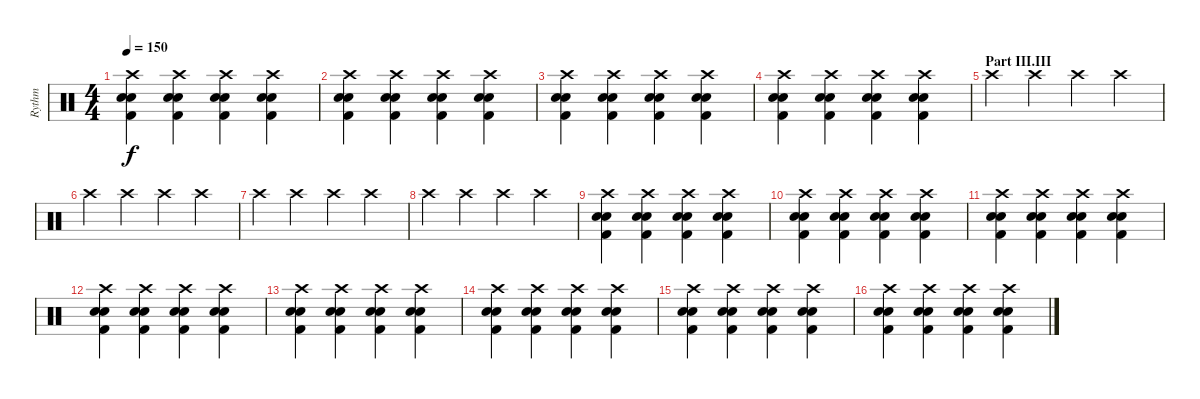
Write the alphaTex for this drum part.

\track ("Rythm" "Rythm") {instrument percussion}
\staff {score}
\articulation defaults
\ts (4 4)
\tempo 150
\clef neutral
\ks c
("Electric Snare (hit)" "Kick (hit) 2" "Snare (hit) 2" "Crash high (hit)").4{dy f} ("Electric Snare (hit)" "Kick (hit) 2" "Snare (hit) 2" "Crash high (hit)").4 ("Electric Snare (hit)" "Kick (hit) 2" "Snare (hit) 2" "Crash high (hit)").4 ("Electric Snare (hit)" "Kick (hit) 2" "Snare (hit) 2" "Crash high (hit)").4 |
("Electric Snare (hit)" "Kick (hit) 2" "Snare (hit) 2" "Crash high (hit)").4 ("Electric Snare (hit)" "Kick (hit) 2" "Snare (hit) 2" "Crash high (hit)").4 ("Electric Snare (hit)" "Kick (hit) 2" "Snare (hit) 2" "Crash high (hit)").4 ("Electric Snare (hit)" "Kick (hit) 2" "Snare (hit) 2" "Crash high (hit)").4 |
("Electric Snare (hit)" "Kick (hit) 2" "Snare (hit) 2" "Crash high (hit)").4 ("Electric Snare (hit)" "Kick (hit) 2" "Snare (hit) 2" "Crash high (hit)").4 ("Electric Snare (hit)" "Kick (hit) 2" "Snare (hit) 2" "Crash high (hit)").4 ("Electric Snare (hit)" "Kick (hit) 2" "Snare (hit) 2" "Crash high (hit)").4 |
("Electric Snare (hit)" "Kick (hit) 2" "Snare (hit) 2" "Crash high (hit)").4 ("Electric Snare (hit)" "Kick (hit) 2" "Snare (hit) 2" "Crash high (hit)").4 ("Electric Snare (hit)" "Kick (hit) 2" "Snare (hit) 2" "Crash high (hit)").4 ("Electric Snare (hit)" "Kick (hit) 2" "Snare (hit) 2" "Crash high (hit)").4 |
\section ("" "Part III.III")
"Crash high (hit)".4 "Crash high (hit)".4 "Crash high (hit)".4 "Crash high (hit)".4 |
"Crash high (hit)".4 "Crash high (hit)".4 "Crash high (hit)".4 "Crash high (hit)".4 |
"Crash high (hit)".4 "Crash high (hit)".4 "Crash high (hit)".4 "Crash high (hit)".4 |
"Crash high (hit)".4 "Crash high (hit)".4 "Crash high (hit)".4 "Crash high (hit)".4 |
("Electric Snare (hit)" "Kick (hit) 2" "Snare (hit) 2" "Crash high (hit)").4 ("Electric Snare (hit)" "Kick (hit) 2" "Snare (hit) 2" "Crash high (hit)").4 ("Electric Snare (hit)" "Kick (hit) 2" "Snare (hit) 2" "Crash high (hit)").4 ("Electric Snare (hit)" "Kick (hit) 2" "Snare (hit) 2" "Crash high (hit)").4 |
("Electric Snare (hit)" "Kick (hit) 2" "Snare (hit) 2" "Crash high (hit)").4 ("Electric Snare (hit)" "Kick (hit) 2" "Snare (hit) 2" "Crash high (hit)").4 ("Electric Snare (hit)" "Kick (hit) 2" "Snare (hit) 2" "Crash high (hit)").4 ("Electric Snare (hit)" "Kick (hit) 2" "Snare (hit) 2" "Crash high (hit)").4 |
("Electric Snare (hit)" "Kick (hit) 2" "Snare (hit) 2" "Crash high (hit)").4 ("Electric Snare (hit)" "Kick (hit) 2" "Snare (hit) 2" "Crash high (hit)").4 ("Electric Snare (hit)" "Kick (hit) 2" "Snare (hit) 2" "Crash high (hit)").4 ("Electric Snare (hit)" "Kick (hit) 2" "Snare (hit) 2" "Crash high (hit)").4 |
("Electric Snare (hit)" "Kick (hit) 2" "Snare (hit) 2" "Crash high (hit)").4 ("Electric Snare (hit)" "Kick (hit) 2" "Snare (hit) 2" "Crash high (hit)").4 ("Electric Snare (hit)" "Kick (hit) 2" "Snare (hit) 2" "Crash high (hit)").4 ("Electric Snare (hit)" "Kick (hit) 2" "Snare (hit) 2" "Crash high (hit)").4 |
("Electric Snare (hit)" "Kick (hit) 2" "Snare (hit) 2" "Crash high (hit)").4 ("Electric Snare (hit)" "Kick (hit) 2" "Snare (hit) 2" "Crash high (hit)").4 ("Electric Snare (hit)" "Kick (hit) 2" "Snare (hit) 2" "Crash high (hit)").4 ("Electric Snare (hit)" "Kick (hit) 2" "Snare (hit) 2" "Crash high (hit)").4 |
("Electric Snare (hit)" "Kick (hit) 2" "Snare (hit) 2" "Crash high (hit)").4 ("Electric Snare (hit)" "Kick (hit) 2" "Snare (hit) 2" "Crash high (hit)").4 ("Electric Snare (hit)" "Kick (hit) 2" "Snare (hit) 2" "Crash high (hit)").4 ("Electric Snare (hit)" "Kick (hit) 2" "Snare (hit) 2" "Crash high (hit)").4 |
("Electric Snare (hit)" "Kick (hit) 2" "Snare (hit) 2" "Crash high (hit)").4 ("Electric Snare (hit)" "Kick (hit) 2" "Snare (hit) 2" "Crash high (hit)").4 ("Electric Snare (hit)" "Kick (hit) 2" "Snare (hit) 2" "Crash high (hit)").4 ("Electric Snare (hit)" "Kick (hit) 2" "Snare (hit) 2" "Crash high (hit)").4 |
("Electric Snare (hit)" "Kick (hit) 2" "Snare (hit) 2" "Crash high (hit)").4 ("Electric Snare (hit)" "Kick (hit) 2" "Snare (hit) 2" "Crash high (hit)").4 ("Electric Snare (hit)" "Kick (hit) 2" "Snare (hit) 2" "Crash high (hit)").4 ("Electric Snare (hit)" "Kick (hit) 2" "Snare (hit) 2" "Crash high (hit)").4
